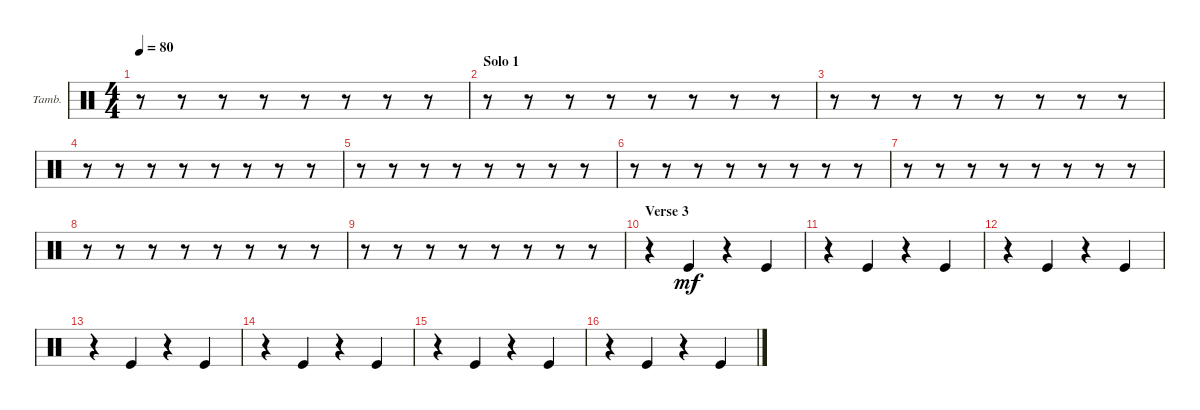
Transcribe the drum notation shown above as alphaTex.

\bracketExtendMode groupsimilarinstruments
\firstSystemTrackNameOrientation horizontal
\otherSystemsTrackNameOrientation horizontal
\chordDiagramsInScore
\track ("Tambourine" "Tamb.") {instrument percussion}
\staff {score}
\articulation defaults
\ts (4 4)
\tempo 80
\clef neutral
\ks c
r.8{dy fff} r.8 r.8 r.8 r.8 r.8 r.8 r.8 |
\section ("" "Solo 1")
r.8 r.8 r.8 r.8 r.8 r.8 r.8 r.8 |
r.8 r.8 r.8 r.8 r.8 r.8 r.8 r.8 |
r.8 r.8 r.8 r.8 r.8 r.8 r.8 r.8 |
r.8 r.8 r.8 r.8 r.8 r.8 r.8 r.8 |
r.8 r.8 r.8 r.8 r.8 r.8 r.8 r.8 |
r.8 r.8 r.8 r.8 r.8 r.8 r.8 r.8 |
r.8 r.8 r.8 r.8 r.8 r.8 r.8 r.8 |
r.8 r.8 r.8 r.8 r.8 r.8 r.8 r.8 |
\section ("" "Verse 3")
r.4 "Kick (hit)".4{dy mf} r.4 "Kick (hit)".4 |
r.4 "Kick (hit)".4 r.4 "Kick (hit)".4 |
r.4 "Kick (hit)".4 r.4 "Kick (hit)".4 |
r.4 "Kick (hit)".4 r.4 "Kick (hit)".4 |
r.4 "Kick (hit)".4 r.4 "Kick (hit)".4 |
r.4 "Kick (hit)".4 r.4 "Kick (hit)".4 |
r.4 "Kick (hit)".4 r.4 "Kick (hit)".4
